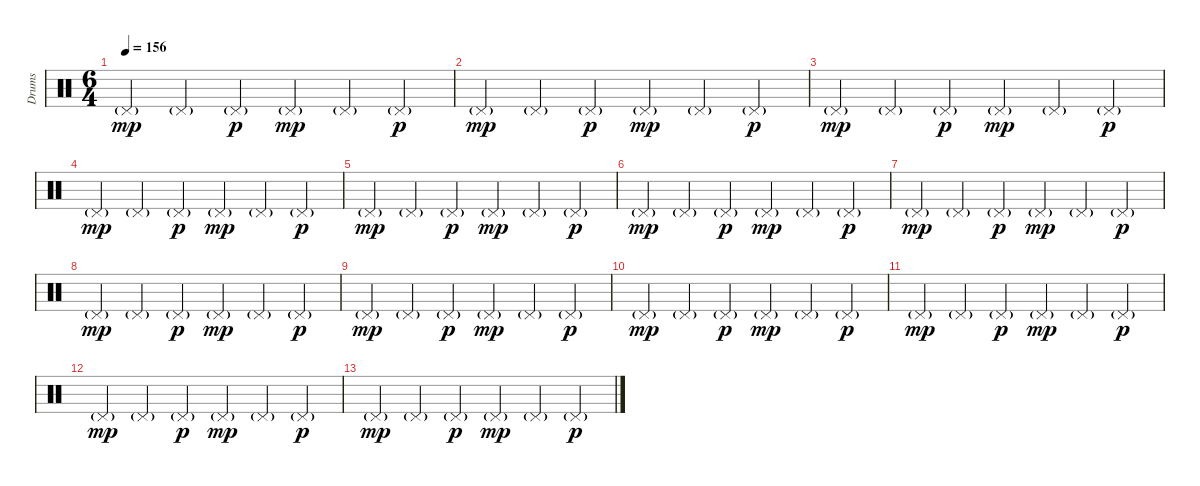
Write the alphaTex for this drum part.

\track ("Drums" "Drums") {instrument percussion}
\staff {score}
\articulation defaults
\ts (6 4)
\tempo 156
\clef neutral
\ks c "Pedal Hi-Hat (hit)"{g}.4{dy mp} "Pedal Hi-Hat (hit)"{g}.4 "Pedal Hi-Hat (hit)"{g}.4{dy p} "Pedal Hi-Hat (hit)"{g}.4{dy mp} "Pedal Hi-Hat (hit)"{g}.4 "Pedal Hi-Hat (hit)"{g}.4{dy p}
|
"Pedal Hi-Hat (hit)"{g}.4{dy mp} "Pedal Hi-Hat (hit)"{g}.4 "Pedal Hi-Hat (hit)"{g}.4{dy p} "Pedal Hi-Hat (hit)"{g}.4{dy mp} "Pedal Hi-Hat (hit)"{g}.4 "Pedal Hi-Hat (hit)"{g}.4{dy p} |
"Pedal Hi-Hat (hit)"{g}.4{dy mp} "Pedal Hi-Hat (hit)"{g}.4 "Pedal Hi-Hat (hit)"{g}.4{dy p} "Pedal Hi-Hat (hit)"{g}.4{dy mp} "Pedal Hi-Hat (hit)"{g}.4 "Pedal Hi-Hat (hit)"{g}.4{dy p} |
"Pedal Hi-Hat (hit)"{g}.4{dy mp} "Pedal Hi-Hat (hit)"{g}.4 "Pedal Hi-Hat (hit)"{g}.4{dy p} "Pedal Hi-Hat (hit)"{g}.4{dy mp} "Pedal Hi-Hat (hit)"{g}.4 "Pedal Hi-Hat (hit)"{g}.4{dy p} |
"Pedal Hi-Hat (hit)"{g}.4{dy mp} "Pedal Hi-Hat (hit)"{g}.4 "Pedal Hi-Hat (hit)"{g}.4{dy p} "Pedal Hi-Hat (hit)"{g}.4{dy mp} "Pedal Hi-Hat (hit)"{g}.4 "Pedal Hi-Hat (hit)"{g}.4{dy p} |
"Pedal Hi-Hat (hit)"{g}.4{dy mp} "Pedal Hi-Hat (hit)"{g}.4 "Pedal Hi-Hat (hit)"{g}.4{dy p} "Pedal Hi-Hat (hit)"{g}.4{dy mp} "Pedal Hi-Hat (hit)"{g}.4 "Pedal Hi-Hat (hit)"{g}.4{dy p} |
"Pedal Hi-Hat (hit)"{g}.4{dy mp} "Pedal Hi-Hat (hit)"{g}.4 "Pedal Hi-Hat (hit)"{g}.4{dy p} "Pedal Hi-Hat (hit)"{g}.4{dy mp} "Pedal Hi-Hat (hit)"{g}.4 "Pedal Hi-Hat (hit)"{g}.4{dy p} |
"Pedal Hi-Hat (hit)"{g}.4{dy mp} "Pedal Hi-Hat (hit)"{g}.4 "Pedal Hi-Hat (hit)"{g}.4{dy p} "Pedal Hi-Hat (hit)"{g}.4{dy mp} "Pedal Hi-Hat (hit)"{g}.4 "Pedal Hi-Hat (hit)"{g}.4{dy p} |
"Pedal Hi-Hat (hit)"{g}.4{dy mp} "Pedal Hi-Hat (hit)"{g}.4 "Pedal Hi-Hat (hit)"{g}.4{dy p} "Pedal Hi-Hat (hit)"{g}.4{dy mp} "Pedal Hi-Hat (hit)"{g}.4 "Pedal Hi-Hat (hit)"{g}.4{dy p} |
"Pedal Hi-Hat (hit)"{g}.4{dy mp} "Pedal Hi-Hat (hit)"{g}.4 "Pedal Hi-Hat (hit)"{g}.4{dy p} "Pedal Hi-Hat (hit)"{g}.4{dy mp} "Pedal Hi-Hat (hit)"{g}.4 "Pedal Hi-Hat (hit)"{g}.4{dy p} |
"Pedal Hi-Hat (hit)"{g}.4{dy mp} "Pedal Hi-Hat (hit)"{g}.4 "Pedal Hi-Hat (hit)"{g}.4{dy p} "Pedal Hi-Hat (hit)"{g}.4{dy mp} "Pedal Hi-Hat (hit)"{g}.4 "Pedal Hi-Hat (hit)"{g}.4{dy p} |
"Pedal Hi-Hat (hit)"{g}.4{dy mp} "Pedal Hi-Hat (hit)"{g}.4 "Pedal Hi-Hat (hit)"{g}.4{dy p} "Pedal Hi-Hat (hit)"{g}.4{dy mp} "Pedal Hi-Hat (hit)"{g}.4 "Pedal Hi-Hat (hit)"{g}.4{dy p} |
"Pedal Hi-Hat (hit)"{g}.4{dy mp} "Pedal Hi-Hat (hit)"{g}.4 "Pedal Hi-Hat (hit)"{g}.4{dy p} "Pedal Hi-Hat (hit)"{g}.4{dy mp} "Pedal Hi-Hat (hit)"{g}.4 "Pedal Hi-Hat (hit)"{g}.4{dy p}
